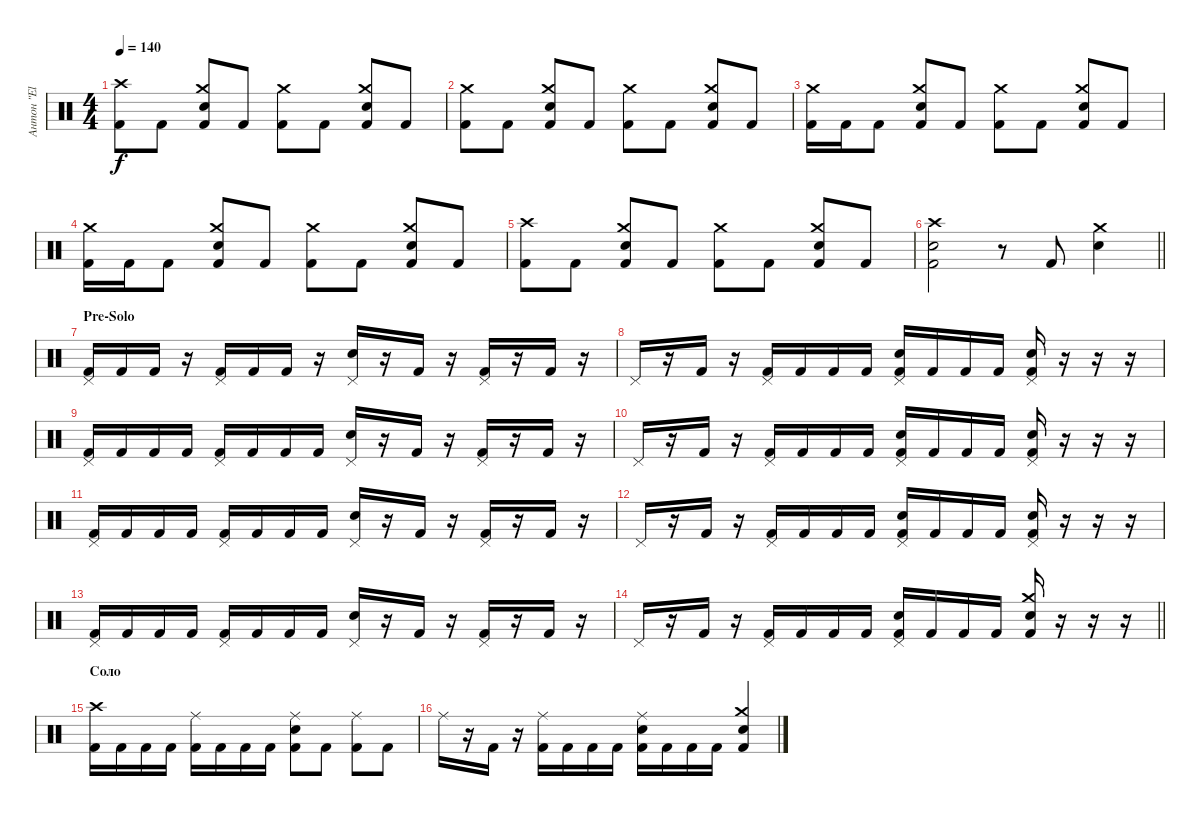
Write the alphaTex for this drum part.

\track ("Антон \"El Bastardo\" Смольянин" "Антон \"El ") {instrument percussion}
\staff {score}
\articulation defaults
\ts (4 4)
\tempo 140
\clef neutral
\ks c
("Crash high (hit)" "Kick (hit) 2").8{dy f} "Kick (hit) 2".8 ("Crash medium (hit)" "Electric Snare (hit)" "Kick (hit) 2").8 "Kick (hit) 2".8 ("Crash medium (hit)" "Kick (hit) 2").8 "Kick (hit) 2".8 ("Crash medium (hit)" "Electric Snare (hit)" "Kick (hit) 2").8 "Kick (hit) 2".8 |
("Crash medium (hit)" "Kick (hit) 2").8 "Kick (hit) 2".8 ("Crash medium (hit)" "Electric Snare (hit)" "Kick (hit) 2").8 "Kick (hit) 2".8 ("Crash medium (hit)" "Kick (hit) 2").8 "Kick (hit) 2".8 ("Crash medium (hit)" "Electric Snare (hit)" "Kick (hit) 2").8 "Kick (hit) 2".8 |
("Crash medium (hit)" "Kick (hit) 2").16 "Kick (hit) 2".16 "Kick (hit) 2".8 ("Crash medium (hit)" "Electric Snare (hit)" "Kick (hit) 2").8 "Kick (hit) 2".8 ("Crash medium (hit)" "Kick (hit) 2").8 "Kick (hit) 2".8 ("Crash medium (hit)" "Electric Snare (hit)" "Kick (hit) 2").8 "Kick (hit) 2".8 |
("Crash medium (hit)" "Kick (hit) 2").16 "Kick (hit) 2".16 "Kick (hit) 2".8 ("Crash medium (hit)" "Electric Snare (hit)" "Kick (hit) 2").8 "Kick (hit) 2".8 ("Crash medium (hit)" "Kick (hit) 2").8 "Kick (hit) 2".8 ("Crash medium (hit)" "Electric Snare (hit)" "Kick (hit) 2").8 "Kick (hit) 2".8 |
("Crash high (hit)" "Kick (hit) 2").8 "Kick (hit) 2".8 ("Crash medium (hit)" "Electric Snare (hit)" "Kick (hit) 2").8 "Kick (hit) 2".8 ("Crash medium (hit)" "Kick (hit) 2").8 "Kick (hit) 2".8 ("Crash medium (hit)" "Electric Snare (hit)" "Kick (hit) 2").8 "Kick (hit) 2".8 |
\barLineRight lightlight
("Crash high (hit)" "Electric Snare (hit)" "Kick (hit) 2").2 r.8 "Kick (hit) 2".8 ("Crash medium (hit)" "Electric Snare (hit)").4 |
\section ("" "Pre-Solo")
("Pedal Hi-Hat (hit)" "Kick (hit) 2").16 "Kick (hit) 2".16 "Kick (hit) 2".16 r.16 ("Pedal Hi-Hat (hit)" "Kick (hit) 2").16 "Kick (hit) 2".16 "Kick (hit) 2".16 r.16 ("Pedal Hi-Hat (hit)" "Electric Snare (hit)").16 r.16 "Kick (hit) 2".16 r.16 ("Pedal Hi-Hat (hit)" "Kick (hit) 2").16 r.16 "Kick (hit) 2".16 r.16 |
"Pedal Hi-Hat (hit)".16 r.16 "Kick (hit) 2".16 r.16 ("Pedal Hi-Hat (hit)" "Kick (hit) 2").16 "Kick (hit) 2".16 "Kick (hit) 2".16 "Kick (hit) 2".16 ("Pedal Hi-Hat (hit)" "Electric Snare (hit)" "Kick (hit) 2").16 "Kick (hit) 2".16 "Kick (hit) 2".16 "Kick (hit) 2".16 ("Pedal Hi-Hat (hit)" "Electric Snare (hit)" "Kick (hit) 2").16 r.16 r.16 r.16 |
("Pedal Hi-Hat (hit)" "Kick (hit) 2").16 "Kick (hit) 2".16 "Kick (hit) 2".16 "Kick (hit) 2".16 ("Pedal Hi-Hat (hit)" "Kick (hit) 2").16 "Kick (hit) 2".16 "Kick (hit) 2".16 "Kick (hit) 2".16 ("Pedal Hi-Hat (hit)" "Electric Snare (hit)").16 r.16 "Kick (hit) 2".16 r.16 ("Pedal Hi-Hat (hit)" "Kick (hit) 2").16 r.16 "Kick (hit) 2".16 r.16 |
"Pedal Hi-Hat (hit)".16 r.16 "Kick (hit) 2".16 r.16 ("Pedal Hi-Hat (hit)" "Kick (hit) 2").16 "Kick (hit) 2".16 "Kick (hit) 2".16 "Kick (hit) 2".16 ("Pedal Hi-Hat (hit)" "Electric Snare (hit)" "Kick (hit) 2").16 "Kick (hit) 2".16 "Kick (hit) 2".16 "Kick (hit) 2".16 ("Pedal Hi-Hat (hit)" "Electric Snare (hit)" "Kick (hit) 2").16 r.16 r.16 r.16 |
("Pedal Hi-Hat (hit)" "Kick (hit) 2").16 "Kick (hit) 2".16 "Kick (hit) 2".16 "Kick (hit) 2".16 ("Pedal Hi-Hat (hit)" "Kick (hit) 2").16 "Kick (hit) 2".16 "Kick (hit) 2".16 "Kick (hit) 2".16 ("Pedal Hi-Hat (hit)" "Electric Snare (hit)").16 r.16 "Kick (hit) 2".16 r.16 ("Pedal Hi-Hat (hit)" "Kick (hit) 2").16 r.16 "Kick (hit) 2".16 r.16 |
"Pedal Hi-Hat (hit)".16 r.16 "Kick (hit) 2".16 r.16 ("Pedal Hi-Hat (hit)" "Kick (hit) 2").16 "Kick (hit) 2".16 "Kick (hit) 2".16 "Kick (hit) 2".16 ("Pedal Hi-Hat (hit)" "Electric Snare (hit)" "Kick (hit) 2").16 "Kick (hit) 2".16 "Kick (hit) 2".16 "Kick (hit) 2".16 ("Pedal Hi-Hat (hit)" "Electric Snare (hit)" "Kick (hit) 2").16 r.16 r.16 r.16 |
("Pedal Hi-Hat (hit)" "Kick (hit) 2").16 "Kick (hit) 2".16 "Kick (hit) 2".16 "Kick (hit) 2".16 ("Pedal Hi-Hat (hit)" "Kick (hit) 2").16 "Kick (hit) 2".16 "Kick (hit) 2".16 "Kick (hit) 2".16 ("Pedal Hi-Hat (hit)" "Electric Snare (hit)").16 r.16 "Kick (hit) 2".16 r.16 ("Pedal Hi-Hat (hit)" "Kick (hit) 2").16 r.16 "Kick (hit) 2".16 r.16 |
\barLineRight lightlight "Pedal Hi-Hat (hit)".16
r.16 "Kick (hit) 2".16 r.16 ("Pedal Hi-Hat (hit)" "Kick (hit) 2").16 "Kick (hit) 2".16 "Kick (hit) 2".16 "Kick (hit) 2".16 ("Pedal Hi-Hat (hit)" "Electric Snare (hit)" "Kick (hit) 2").16 "Kick (hit) 2".16 "Kick (hit) 2".16 "Kick (hit) 2".16 ("Crash medium (hit)" "Electric Snare (hit)" "Kick (hit) 2").16 r.16 r.16 r.16 |
\section ("" "Соло")
("Crash high (hit)" "Kick (hit) 2").16 "Kick (hit) 2".16 "Kick (hit) 2".16 "Kick (hit) 2".16 ("Ride (middle)" "Kick (hit) 2").16 "Kick (hit) 2".16 "Kick (hit) 2".16 "Kick (hit) 2".16 ("Ride (middle)" "Electric Snare (hit)" "Kick (hit) 2").8 "Kick (hit) 2".8 ("Ride (middle)" "Kick (hit) 2").8 "Kick (hit) 2".8 |
"Ride (middle)".16 r.16 "Kick (hit) 2".16 r.16 ("Ride (middle)" "Kick (hit) 2").16 "Kick (hit) 2".16 "Kick (hit) 2".16 "Kick (hit) 2".16 ("Ride (middle)" "Electric Snare (hit)" "Kick (hit) 2").16 "Kick (hit) 2".16 "Kick (hit) 2".16 "Kick (hit) 2".16 ("Crash medium (hit)" "Electric Snare (hit)" "Kick (hit) 2").4
